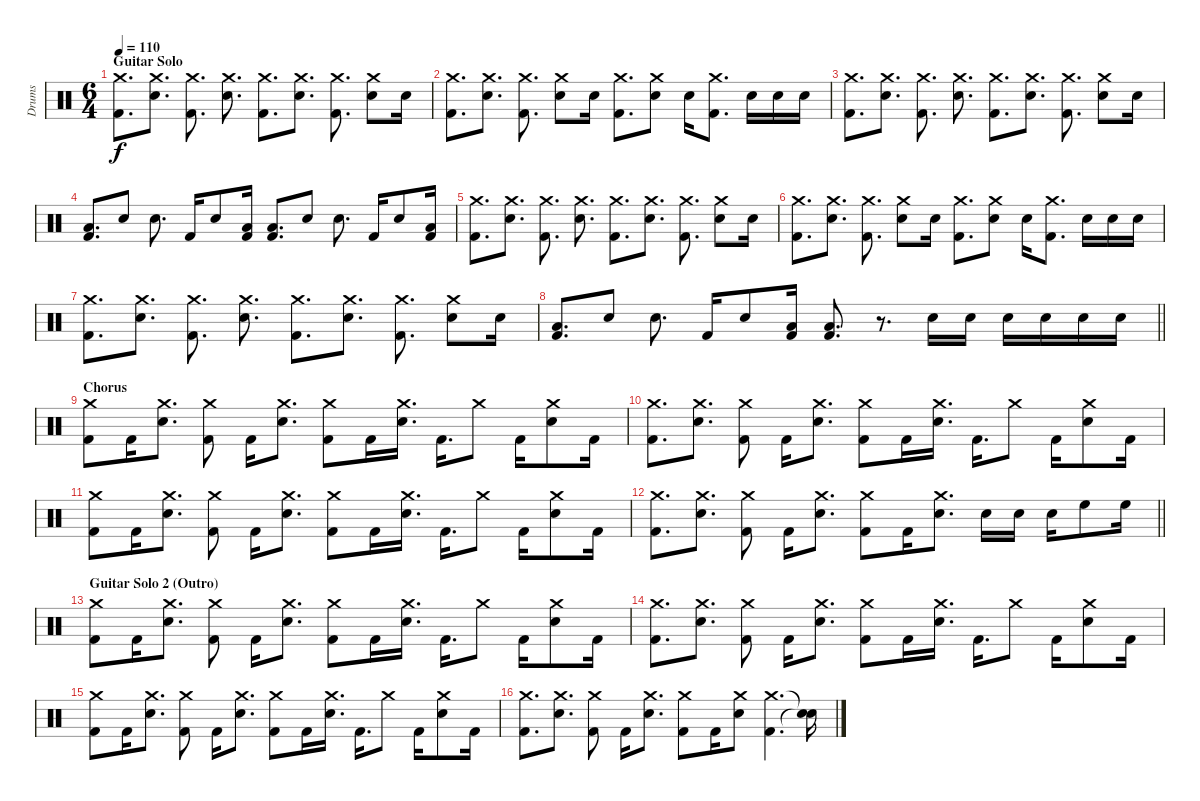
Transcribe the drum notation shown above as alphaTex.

\track ("Drums" "Drums") {instrument percussion}
\staff {score}
\articulation defaults
\ts (6 4)
\section ("" "Guitar Solo")
\tempo 110
\clef neutral
\ks c
("Crash medium (hit)" "Kick (hit) 2").8{d dy f} ("Crash medium (hit)" "Snare (hit) 2").8{d} ("Crash medium (hit)" "Kick (hit) 2").8{d} ("Crash medium (hit)" "Snare (hit) 2").8{d} ("Crash medium (hit)" "Kick (hit) 2").8{d} ("Crash medium (hit)" "Snare (hit) 2").8{d} ("Crash medium (hit)" "Kick (hit) 2").8{d} ("Crash medium (hit)" "Snare (hit) 2").8 "Snare (hit) 2".16 |
("Crash medium (hit)" "Kick (hit) 2").8{d} ("Crash medium (hit)" "Snare (hit) 2").8{d} ("Crash medium (hit)" "Kick (hit) 2").8{d} ("Crash medium (hit)" "Snare (hit) 2").8 "Snare (hit) 2".16 ("Crash medium (hit)" "Kick (hit) 2").8{d} ("Crash medium (hit)" "Snare (hit) 2").8 "Snare (hit) 2".16 ("Crash medium (hit)" "Kick (hit) 2").8{d} "Snare (hit) 2".16 "Snare (hit) 2".16 "Snare (hit) 2".16 |
("Crash medium (hit)" "Kick (hit) 2").8{d} ("Crash medium (hit)" "Snare (hit) 2").8{d} ("Crash medium (hit)" "Kick (hit) 2").8{d} ("Crash medium (hit)" "Snare (hit) 2").8{d} ("Crash medium (hit)" "Kick (hit) 2").8{d} ("Crash medium (hit)" "Snare (hit) 2").8{d} ("Crash medium (hit)" "Kick (hit) 2").8{d} ("Crash medium (hit)" "Snare (hit) 2").8 "Snare (hit) 2".16 |
("Low Floor Tom (hit)" "Kick (hit) 2").8{d} "Snare (hit) 2".8 "Snare (hit) 2".8{d} "Kick (hit) 2".16 "Snare (hit) 2".8 ("Low Floor Tom (hit)" "Kick (hit) 2").16 ("Low Floor Tom (hit)" "Kick (hit) 2").8{d} "Snare (hit) 2".8 "Snare (hit) 2".8{d} "Kick (hit) 2".16 "Snare (hit) 2".8 ("Low Floor Tom (hit)" "Kick (hit) 2").16 |
("Crash medium (hit)" "Kick (hit) 2").8{d} ("Crash medium (hit)" "Snare (hit) 2").8{d} ("Crash medium (hit)" "Kick (hit) 2").8{d} ("Crash medium (hit)" "Snare (hit) 2").8{d} ("Crash medium (hit)" "Kick (hit) 2").8{d} ("Crash medium (hit)" "Snare (hit) 2").8{d} ("Crash medium (hit)" "Kick (hit) 2").8{d} ("Crash medium (hit)" "Snare (hit) 2").8 "Snare (hit) 2".16 |
("Crash medium (hit)" "Kick (hit) 2").8{d} ("Crash medium (hit)" "Snare (hit) 2").8{d} ("Crash medium (hit)" "Kick (hit) 2").8{d} ("Crash medium (hit)" "Snare (hit) 2").8 "Snare (hit) 2".16 ("Crash medium (hit)" "Kick (hit) 2").8{d} ("Crash medium (hit)" "Snare (hit) 2").8 "Snare (hit) 2".16 ("Crash medium (hit)" "Kick (hit) 2").8{d} "Snare (hit) 2".16 "Snare (hit) 2".16 "Snare (hit) 2".16 |
("Crash medium (hit)" "Kick (hit) 2").8{d} ("Crash medium (hit)" "Snare (hit) 2").8{d} ("Crash medium (hit)" "Kick (hit) 2").8{d} ("Crash medium (hit)" "Snare (hit) 2").8{d} ("Crash medium (hit)" "Kick (hit) 2").8{d} ("Crash medium (hit)" "Snare (hit) 2").8{d} ("Crash medium (hit)" "Kick (hit) 2").8{d} ("Crash medium (hit)" "Snare (hit) 2").8 "Snare (hit) 2".16 |
\barLineRight lightlight
("Low Floor Tom (hit)" "Kick (hit) 2").8{d} "Snare (hit) 2".8 "Snare (hit) 2".8{d} "Kick (hit) 2".16 "Snare (hit) 2".8 ("Low Floor Tom (hit)" "Kick (hit) 2").16 ("Low Floor Tom (hit)" "Kick (hit) 2").8{d} r.8{d} "Snare (hit) 2".16 "Snare (hit) 2".16 "Snare (hit) 2".16 "Snare (hit) 2".16 "Snare (hit) 2".16 "Snare (hit) 2".16 |
\section ("" "Chorus")
("Crash medium (hit)" "Kick (hit) 2").8 "Kick (hit) 2".16 ("Crash medium (hit)" "Snare (hit) 2").8{d} ("Crash medium (hit)" "Kick (hit) 2").8 "Kick (hit) 2".16 ("Crash medium (hit)" "Snare (hit) 2").8{d} ("Crash medium (hit)" "Kick (hit) 2").8 "Kick (hit) 2".16 ("Crash medium (hit)" "Snare (hit) 2").16{d} "Kick (hit) 2".16{d} "Crash medium (hit)".8 "Kick (hit) 2".16 ("Crash medium (hit)" "Snare (hit) 2").8 "Kick (hit) 2".16 |
("Crash medium (hit)" "Kick (hit) 2").8{d} ("Crash medium (hit)" "Snare (hit) 2").8{d} ("Crash medium (hit)" "Kick (hit) 2").8 "Kick (hit) 2".16 ("Crash medium (hit)" "Snare (hit) 2").8{d} ("Crash medium (hit)" "Kick (hit) 2").8 "Kick (hit) 2".16 ("Crash medium (hit)" "Snare (hit) 2").16{d} "Kick (hit) 2".16{d} "Crash medium (hit)".8 "Kick (hit) 2".16 ("Crash medium (hit)" "Snare (hit) 2").8 "Kick (hit) 2".16 |
("Crash medium (hit)" "Kick (hit) 2").8 "Kick (hit) 2".16 ("Crash medium (hit)" "Snare (hit) 2").8{d} ("Crash medium (hit)" "Kick (hit) 2").8 "Kick (hit) 2".16 ("Crash medium (hit)" "Snare (hit) 2").8{d} ("Crash medium (hit)" "Kick (hit) 2").8 "Kick (hit) 2".16 ("Crash medium (hit)" "Snare (hit) 2").16{d} "Kick (hit) 2".16{d} "Crash medium (hit)".8 "Kick (hit) 2".16 ("Crash medium (hit)" "Snare (hit) 2").8 "Kick (hit) 2".16 |
\barLineRight lightlight
("Crash medium (hit)" "Kick (hit) 2").8{d} ("Crash medium (hit)" "Snare (hit) 2").8{d} ("Crash medium (hit)" "Kick (hit) 2").8 "Kick (hit) 2".16 ("Crash medium (hit)" "Snare (hit) 2").8{d} ("Crash medium (hit)" "Kick (hit) 2").8 "Kick (hit) 2".16 ("Crash medium (hit)" "Snare (hit) 2").8{d} "Snare (hit) 2".16 "Snare (hit) 2".16 "Snare (hit) 2".16 "High Floor Tom (hit)".8 "High Floor Tom (hit)".16 |
\section ("" "Guitar Solo 2 (Outro)")
("Crash medium (hit)" "Kick (hit) 2").8 "Kick (hit) 2".16 ("Crash medium (hit)" "Snare (hit) 2").8{d} ("Crash medium (hit)" "Kick (hit) 2").8 "Kick (hit) 2".16 ("Crash medium (hit)" "Snare (hit) 2").8{d} ("Crash medium (hit)" "Kick (hit) 2").8 "Kick (hit) 2".16 ("Crash medium (hit)" "Snare (hit) 2").16{d} "Kick (hit) 2".16{d} "Crash medium (hit)".8 "Kick (hit) 2".16 ("Crash medium (hit)" "Snare (hit) 2").8 "Kick (hit) 2".16 |
("Crash medium (hit)" "Kick (hit) 2").8{d} ("Crash medium (hit)" "Snare (hit) 2").8{d} ("Crash medium (hit)" "Kick (hit) 2").8 "Kick (hit) 2".16 ("Crash medium (hit)" "Snare (hit) 2").8{d} ("Crash medium (hit)" "Kick (hit) 2").8 "Kick (hit) 2".16 ("Crash medium (hit)" "Snare (hit) 2").16{d} "Kick (hit) 2".16{d} "Crash medium (hit)".8 "Kick (hit) 2".16 ("Crash medium (hit)" "Snare (hit) 2").8 "Kick (hit) 2".16 |
("Crash medium (hit)" "Kick (hit) 2").8 "Kick (hit) 2".16 ("Crash medium (hit)" "Snare (hit) 2").8{d} ("Crash medium (hit)" "Kick (hit) 2").8 "Kick (hit) 2".16 ("Crash medium (hit)" "Snare (hit) 2").8{d} ("Crash medium (hit)" "Kick (hit) 2").8 "Kick (hit) 2".16 ("Crash medium (hit)" "Snare (hit) 2").16{d} "Kick (hit) 2".16{d} "Crash medium (hit)".8 "Kick (hit) 2".16 ("Crash medium (hit)" "Snare (hit) 2").8 "Kick (hit) 2".16 |
("Crash medium (hit)" "Kick (hit) 2").8{d} ("Crash medium (hit)" "Snare (hit) 2").8{d} ("Crash medium (hit)" "Kick (hit) 2").8 "Kick (hit) 2".16 ("Crash medium (hit)" "Snare (hit) 2").8{d} ("Crash medium (hit)" "Kick (hit) 2").8 "Kick (hit) 2".16 ("Crash medium (hit)" "Snare (hit) 2").8 ("Crash medium (hit)" "Kick (hit) 2").4{d} ("Snare (hit)"{t} "Snare (hit)"{t}).16
